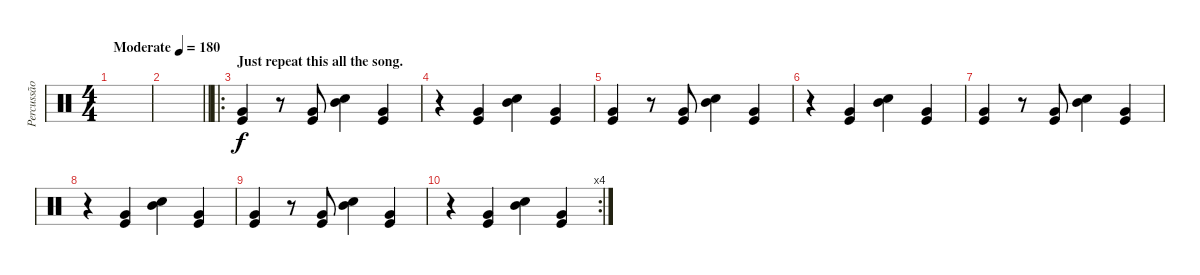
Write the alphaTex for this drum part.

\track ("Percussão" "Percussão") {instrument percussion}
\staff {score}
\articulation defaults
\ts (4 4)
\tempo (180 "Moderate")
\clef neutral
\ks c
|
\barLineRight lightlight
|
\ro
\section ("" "Just repeat this all the song.")
("Very Low Tom (hit)" "Kick (hit)").4 r.8 ("Very Low Tom (hit)" "Kick (hit)").8 ("Mid Tom (hit)" "Electric Snare (hit)").4 ("Very Low Tom (hit)" "Kick (hit)").4 |
r.4 ("Very Low Tom (hit)" "Kick (hit)").4 ("Mid Tom (hit)" "Electric Snare (hit)").4 ("Very Low Tom (hit)" "Kick (hit)").4 |
("Very Low Tom (hit)" "Kick (hit)").4 r.8 ("Very Low Tom (hit)" "Kick (hit)").8 ("Mid Tom (hit)" "Electric Snare (hit)").4 ("Very Low Tom (hit)" "Kick (hit)").4 |
r.4 ("Very Low Tom (hit)" "Kick (hit)").4 ("Mid Tom (hit)" "Electric Snare (hit)").4 ("Very Low Tom (hit)" "Kick (hit)").4 |
("Very Low Tom (hit)" "Kick (hit)").4 r.8 ("Very Low Tom (hit)" "Kick (hit)").8 ("Mid Tom (hit)" "Electric Snare (hit)").4 ("Very Low Tom (hit)" "Kick (hit)").4 |
r.4 ("Very Low Tom (hit)" "Kick (hit)").4 ("Mid Tom (hit)" "Electric Snare (hit)").4 ("Very Low Tom (hit)" "Kick (hit)").4 |
("Very Low Tom (hit)" "Kick (hit)").4 r.8 ("Very Low Tom (hit)" "Kick (hit)").8 ("Mid Tom (hit)" "Electric Snare (hit)").4 ("Very Low Tom (hit)" "Kick (hit)").4 |
\rc 4
r.4 ("Very Low Tom (hit)" "Kick (hit)").4 ("Mid Tom (hit)" "Electric Snare (hit)").4 ("Very Low Tom (hit)" "Kick (hit)").4
